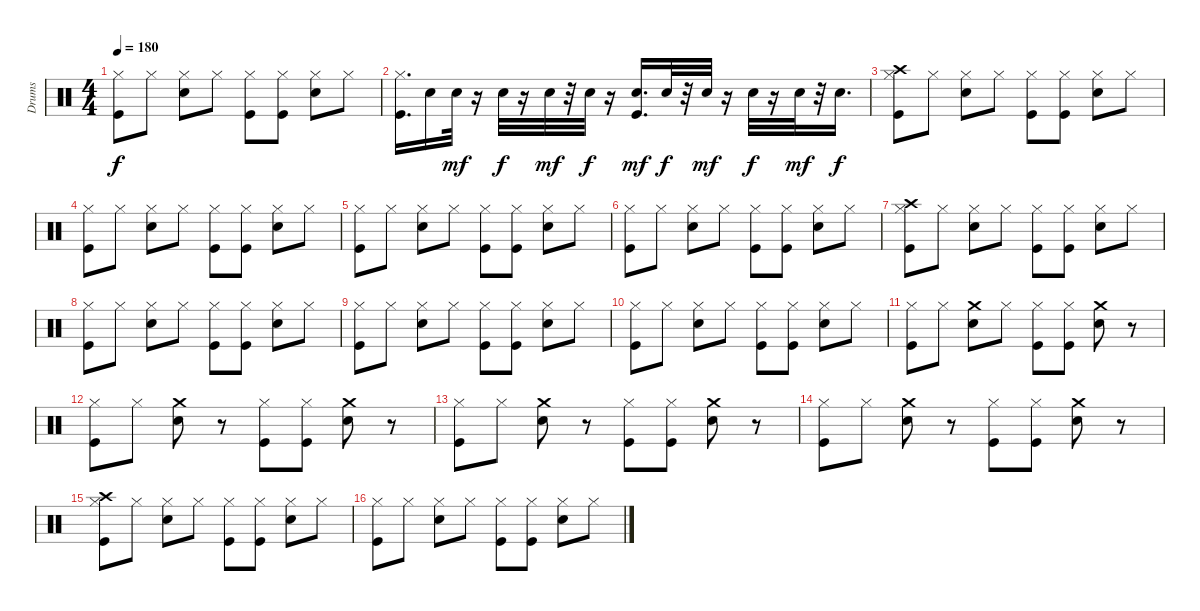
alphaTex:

\track ("Drums" "Drums") {instrument percussion}
\staff {score}
\articulation defaults
\ts (4 4)
\tempo 180
\clef neutral
\ks c
("Hi-Hat (closed)" "Kick (hit)").8{dy f} "Hi-Hat (closed)".8 ("Hi-Hat (closed)" "Electric Snare (hit)").8 "Hi-Hat (closed)".8 ("Kick (hit)" "Hi-Hat (closed)").8 ("Hi-Hat (closed)" "Kick (hit)").8 ("Hi-Hat (closed)" "Electric Snare (hit)").8 "Hi-Hat (closed)".8 |
("Hi-Hat (closed)" "Kick (hit)").16{d} "Electric Snare (hit)".16 "Electric Snare (hit)".32{dy mf} r.16 "Electric Snare (hit)".32{dy f} r.16 "Electric Snare (hit)".32{dy mf} r.32 "Electric Snare (hit)".32{dy f} r.16 ("Kick (hit)" "Electric Snare (hit)").16{d dy mf} "Electric Snare (hit)".32{dy f} r.32 "Electric Snare (hit)".32{dy mf} r.16 "Electric Snare (hit)".32{dy f} r.16 "Electric Snare (hit)".32{dy mf} r.32 "Electric Snare (hit)".16{d dy f} |
("Crash high (hit)" "Hi-Hat (closed)" "Kick (hit)").8 "Hi-Hat (closed)".8 ("Hi-Hat (closed)" "Electric Snare (hit)").8 "Hi-Hat (closed)".8 ("Kick (hit)" "Hi-Hat (closed)").8 ("Hi-Hat (closed)" "Kick (hit)").8 ("Hi-Hat (closed)" "Electric Snare (hit)").8 "Hi-Hat (closed)".8 |
("Hi-Hat (closed)" "Kick (hit)").8 "Hi-Hat (closed)".8 ("Hi-Hat (closed)" "Electric Snare (hit)").8 "Hi-Hat (closed)".8 ("Kick (hit)" "Hi-Hat (closed)").8 ("Hi-Hat (closed)" "Kick (hit)").8 ("Hi-Hat (closed)" "Electric Snare (hit)").8 "Hi-Hat (closed)".8 |
("Hi-Hat (closed)" "Kick (hit)").8 "Hi-Hat (closed)".8 ("Hi-Hat (closed)" "Electric Snare (hit)").8 "Hi-Hat (closed)".8 ("Kick (hit)" "Hi-Hat (closed)").8 ("Hi-Hat (closed)" "Kick (hit)").8 ("Hi-Hat (closed)" "Electric Snare (hit)").8 "Hi-Hat (closed)".8 |
("Hi-Hat (closed)" "Kick (hit)").8 "Hi-Hat (closed)".8 ("Hi-Hat (closed)" "Electric Snare (hit)").8 "Hi-Hat (closed)".8 ("Kick (hit)" "Hi-Hat (closed)").8 ("Hi-Hat (closed)" "Kick (hit)").8 ("Hi-Hat (closed)" "Electric Snare (hit)").8 "Hi-Hat (closed)".8 |
("Crash high (hit)" "Hi-Hat (closed)" "Kick (hit)").8 "Hi-Hat (closed)".8 ("Hi-Hat (closed)" "Electric Snare (hit)").8 "Hi-Hat (closed)".8 ("Kick (hit)" "Hi-Hat (closed)").8 ("Hi-Hat (closed)" "Kick (hit)").8 ("Hi-Hat (closed)" "Electric Snare (hit)").8 "Hi-Hat (closed)".8 |
("Hi-Hat (closed)" "Kick (hit)").8 "Hi-Hat (closed)".8 ("Hi-Hat (closed)" "Electric Snare (hit)").8 "Hi-Hat (closed)".8 ("Kick (hit)" "Hi-Hat (closed)").8 ("Hi-Hat (closed)" "Kick (hit)").8 ("Hi-Hat (closed)" "Electric Snare (hit)").8 "Hi-Hat (closed)".8 |
("Hi-Hat (closed)" "Kick (hit)").8 "Hi-Hat (closed)".8 ("Hi-Hat (closed)" "Electric Snare (hit)").8 "Hi-Hat (closed)".8 ("Kick (hit)" "Hi-Hat (closed)").8 ("Hi-Hat (closed)" "Kick (hit)").8 ("Hi-Hat (closed)" "Electric Snare (hit)").8 "Hi-Hat (closed)".8 |
("Hi-Hat (closed)" "Kick (hit)").8 "Hi-Hat (closed)".8 ("Hi-Hat (closed)" "Electric Snare (hit)").8 "Hi-Hat (closed)".8 ("Kick (hit)" "Hi-Hat (closed)").8 ("Hi-Hat (closed)" "Kick (hit)").8 ("Hi-Hat (closed)" "Electric Snare (hit)").8 "Hi-Hat (closed)".8 |
("Hi-Hat (closed)" "Kick (hit)").8 "Hi-Hat (closed)".8 ("Electric Snare (hit)" "Crash medium (hit)").8 "Hi-Hat (closed)".8 ("Kick (hit)" "Hi-Hat (closed)").8 ("Hi-Hat (closed)" "Kick (hit)").8 ("Crash medium (hit)" "Electric Snare (hit)").8 r.8 |
("Hi-Hat (closed)" "Kick (hit)").8 "Hi-Hat (closed)".8 ("Crash medium (hit)" "Electric Snare (hit)").8 r.8 ("Kick (hit)" "Hi-Hat (closed)").8 ("Hi-Hat (closed)" "Kick (hit)").8 ("Crash medium (hit)" "Electric Snare (hit)").8 r.8 |
("Hi-Hat (closed)" "Kick (hit)").8 "Hi-Hat (closed)".8 ("Crash medium (hit)" "Electric Snare (hit)").8 r.8 ("Kick (hit)" "Hi-Hat (closed)").8 ("Hi-Hat (closed)" "Kick (hit)").8 ("Crash medium (hit)" "Electric Snare (hit)").8 r.8 |
("Hi-Hat (closed)" "Kick (hit)").8 "Hi-Hat (closed)".8 ("Electric Snare (hit)" "Crash medium (hit)").8 r.8 ("Kick (hit)" "Hi-Hat (closed)").8 ("Hi-Hat (closed)" "Kick (hit)").8 ("Crash medium (hit)" "Electric Snare (hit)").8 r.8 |
("Crash high (hit)" "Hi-Hat (closed)" "Kick (hit)").8 "Hi-Hat (closed)".8 ("Hi-Hat (closed)" "Electric Snare (hit)").8 "Hi-Hat (closed)".8 ("Kick (hit)" "Hi-Hat (closed)").8 ("Hi-Hat (closed)" "Kick (hit)").8 ("Hi-Hat (closed)" "Electric Snare (hit)").8 "Hi-Hat (closed)".8 |
("Hi-Hat (closed)" "Kick (hit)").8 "Hi-Hat (closed)".8 ("Hi-Hat (closed)" "Electric Snare (hit)").8 "Hi-Hat (closed)".8 ("Kick (hit)" "Hi-Hat (closed)").8 ("Hi-Hat (closed)" "Kick (hit)").8 ("Hi-Hat (closed)" "Electric Snare (hit)").8 "Hi-Hat (closed)".8
